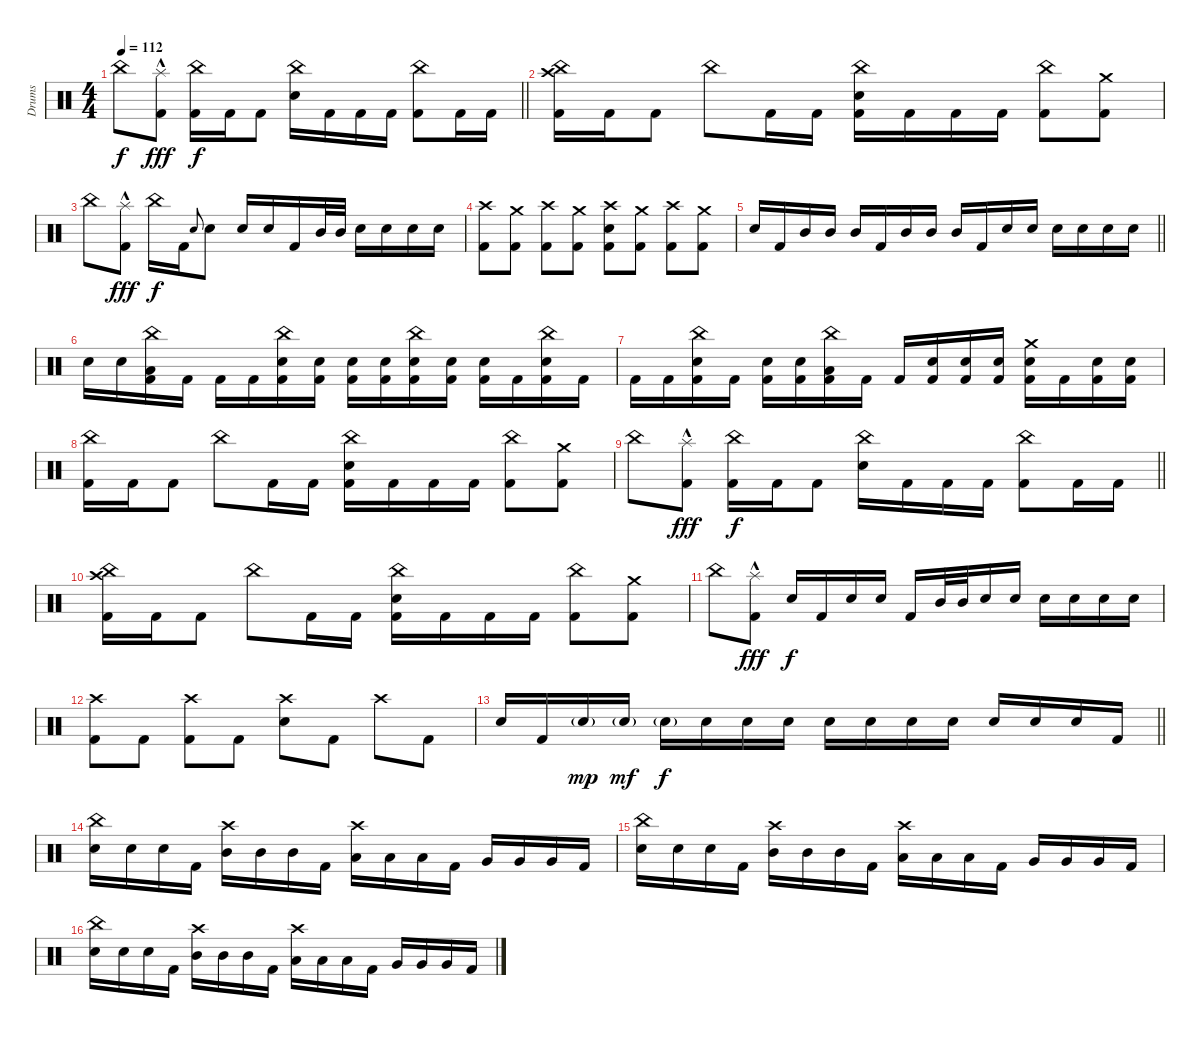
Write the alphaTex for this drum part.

\track ("Drums" "Drums") {instrument percussion}
\staff {score}
\articulation defaults
\ts (4 4)
\tempo 112
\clef neutral
\barLineRight lightlight
\ks c "China (hit)".8{dy f}
("Splash (hit)"{hac} "Kick (hit) 2").8{dy fff} ("China (hit)" "Kick (hit) 2").16{dy f} "Kick (hit) 2".16 "Kick (hit) 2".8 ("China (hit)" "Electric Snare (hit)").16 "Kick (hit) 2".16 "Kick (hit) 2".16 "Kick (hit) 2".16 ("China (hit)" "Kick (hit) 2").8 "Kick (hit) 2".16 "Kick (hit) 2".16 |
("China (hit)" "Crash high (hit)" "Kick (hit) 2").16 "Kick (hit) 2".16 "Kick (hit) 2".8 "China (hit)".8 "Kick (hit) 2".16 "Kick (hit) 2".16 ("China (hit)" "Electric Snare (hit)" "Kick (hit) 2").16 "Kick (hit) 2".16 "Kick (hit) 2".16 "Kick (hit) 2".16 ("China (hit)" "Kick (hit) 2").8 ("Crash medium (hit)" "Kick (hit) 2").8 |
"China (hit)".8 ("Splash (hit)"{hac} "Kick (hit) 2").8{dy fff} "China (hit)".16{dy f} "Kick (hit) 2".16 "Electric Snare (hit)".8{gr onbeat} "Electric Snare (hit)".8 "Electric Snare (hit)".16 "Electric Snare (hit)".16 "Kick (hit) 2".16 "Mid Tom (hit)".32 "Mid Tom (hit)".32 "Electric Snare (hit)".16 "Electric Snare (hit)".16 "Electric Snare (hit)".16 "Electric Snare (hit)".16 |
("Crash high (hit)" "Kick (hit) 2").8 ("Crash medium (hit)" "Kick (hit) 2").8 ("Crash high (hit)" "Kick (hit) 2").8 ("Crash medium (hit)" "Kick (hit) 2").8 ("Crash high (hit)" "Electric Snare (hit)" "Kick (hit) 2").8 ("Crash medium (hit)" "Kick (hit) 2").8 ("Crash high (hit)" "Kick (hit) 2").8 ("Crash medium (hit)" "Kick (hit) 2").8 |
\barLineRight lightlight "Electric Snare (hit)".16 "Kick (hit) 2".16 "Mid Tom (hit)".16 "Mid Tom (hit)".16 "Mid Tom (hit)".16 "Kick (hit) 2".16 "Mid Tom (hit)".16 "Mid Tom (hit)".16 "Mid Tom (hit)".16 "Kick (hit) 2".16 "Electric Snare (hit)".16 "Electric Snare (hit)".16 "Electric Snare (hit)".16 "Electric Snare (hit)".16 "Electric Snare (hit)".16 "Electric Snare (hit)".16
|
"Electric Snare (hit)".16 "Electric Snare (hit)".16 ("China (hit)" "Low Tom (hit)" "Kick (hit) 2").16 "Kick (hit) 2".16 "Kick (hit) 2".16 "Kick (hit) 2".16 ("China (hit)" "Electric Snare (hit)" "Kick (hit) 2").16 ("Electric Snare (hit)" "Kick (hit) 2").16 ("Electric Snare (hit)" "Kick (hit) 2").16 ("Electric Snare (hit)" "Kick (hit) 2").16 ("China (hit)" "Electric Snare (hit)" "Kick (hit) 2").16 ("Electric Snare (hit)" "Kick (hit) 2").16 ("Electric Snare (hit)" "Kick (hit) 2").16 "Kick (hit) 2".16 ("China (hit)" "Electric Snare (hit)" "Kick (hit) 2").16 "Kick (hit) 2".16 |
"Kick (hit) 2".16 "Kick (hit) 2".16 ("China (hit)" "Electric Snare (hit)" "Kick (hit) 2").16 "Kick (hit) 2".16 ("Electric Snare (hit)" "Kick (hit) 2").16 ("Electric Snare (hit)" "Kick (hit) 2").16 ("China (hit)" "Low Tom (hit)" "Kick (hit) 2").16 "Kick (hit) 2".16 "Kick (hit) 2".16 ("Electric Snare (hit)" "Kick (hit) 2").16 ("Electric Snare (hit)" "Kick (hit) 2").16 ("Electric Snare (hit)" "Kick (hit) 2").16 ("Crash medium (hit)" "Electric Snare (hit)" "Kick (hit) 2").16 "Kick (hit) 2".16 ("Electric Snare (hit)" "Kick (hit) 2").16 ("Electric Snare (hit)" "Kick (hit) 2").16 |
("China (hit)" "Kick (hit) 2").16 "Kick (hit) 2".16 "Kick (hit) 2".8 "China (hit)".8 "Kick (hit) 2".16 "Kick (hit) 2".16 ("China (hit)" "Electric Snare (hit)" "Kick (hit) 2").16 "Kick (hit) 2".16 "Kick (hit) 2".16 "Kick (hit) 2".16 ("China (hit)" "Kick (hit) 2").8 ("Crash medium (hit)" "Kick (hit) 2").8 |
\barLineRight lightlight "China (hit)".8
("Splash (hit)"{hac} "Kick (hit) 2").8{dy fff} ("China (hit)" "Kick (hit) 2").16{dy f} "Kick (hit) 2".16 "Kick (hit) 2".8 ("China (hit)" "Electric Snare (hit)").16 "Kick (hit) 2".16 "Kick (hit) 2".16 "Kick (hit) 2".16 ("China (hit)" "Kick (hit) 2").8 "Kick (hit) 2".16 "Kick (hit) 2".16 |
("China (hit)" "Crash high (hit)" "Kick (hit) 2").16 "Kick (hit) 2".16 "Kick (hit) 2".8 "China (hit)".8 "Kick (hit) 2".16 "Kick (hit) 2".16 ("China (hit)" "Electric Snare (hit)" "Kick (hit) 2").16 "Kick (hit) 2".16 "Kick (hit) 2".16 "Kick (hit) 2".16 ("China (hit)" "Kick (hit) 2").8 ("Crash medium (hit)" "Kick (hit) 2").8 |
"China (hit)".8 ("Splash (hit)"{hac} "Kick (hit) 2").8{dy fff} "Electric Snare (hit)".16{dy f} "Kick (hit) 2".16 "Electric Snare (hit)".16 "Electric Snare (hit)".16 "Kick (hit) 2".16 "Mid Tom (hit)".32 "Mid Tom (hit)".32 "Electric Snare (hit)".16 "Electric Snare (hit)".16 "Electric Snare (hit)".16 "Electric Snare (hit)".16 "Electric Snare (hit)".16 "Electric Snare (hit)".16 |
("Crash high (hit)" "Kick (hit) 2").8 "Kick (hit) 2".8 ("Crash high (hit)" "Kick (hit) 2").8 "Kick (hit) 2".8 ("Crash high (hit)" "Electric Snare (hit)").8 "Kick (hit) 2".8 "Crash high (hit)".8 "Kick (hit) 2".8 |
\barLineRight lightlight "Electric Snare (hit)".16 "Kick (hit) 2".16 "Electric Snare (hit)"{g}.16{dy mp} "Electric Snare (hit)"{g}.16{dy mf} "Electric Snare (hit)"{g}.16{dy f} "Electric Snare (hit)".16 "Electric Snare (hit)".16 "Electric Snare (hit)".16 "Electric Snare (hit)".16 "Electric Snare (hit)".16 "Electric Snare (hit)".16 "Electric Snare (hit)".16 "Electric Snare (hit)".16 "Electric Snare (hit)".16 "Electric Snare (hit)".16 "Kick (hit) 2".16
|
("China (hit)" "Electric Snare (hit)").16 "Electric Snare (hit)".16 "Electric Snare (hit)".16 "Kick (hit) 2".16 ("Crash high (hit)" "Mid Tom (hit)").16 "Mid Tom (hit)".16 "Mid Tom (hit)".16 "Kick (hit) 2".16 ("Crash high (hit)" "Low Tom (hit)").16 "Low Tom (hit)".16 "Low Tom (hit)".16 "Kick (hit) 2".16 "Very Low Tom (hit)".16 "Very Low Tom (hit)".16 "Very Low Tom (hit)".16 "Kick (hit) 2".16 |
("China (hit)" "Electric Snare (hit)").16 "Electric Snare (hit)".16 "Electric Snare (hit)".16 "Kick (hit) 2".16 ("Crash high (hit)" "Mid Tom (hit)").16 "Mid Tom (hit)".16 "Mid Tom (hit)".16 "Kick (hit) 2".16 ("Crash high (hit)" "Low Tom (hit)").16 "Low Tom (hit)".16 "Low Tom (hit)".16 "Kick (hit) 2".16 "Very Low Tom (hit)".16 "Very Low Tom (hit)".16 "Very Low Tom (hit)".16 "Kick (hit) 2".16 |
("China (hit)" "Electric Snare (hit)").16 "Electric Snare (hit)".16 "Electric Snare (hit)".16 "Kick (hit) 2".16 ("Crash high (hit)" "Mid Tom (hit)").16 "Mid Tom (hit)".16 "Mid Tom (hit)".16 "Kick (hit) 2".16 ("Crash high (hit)" "Low Tom (hit)").16 "Low Tom (hit)".16 "Low Tom (hit)".16 "Kick (hit) 2".16 "Very Low Tom (hit)".16 "Very Low Tom (hit)".16 "Very Low Tom (hit)".16 "Kick (hit) 2".16
